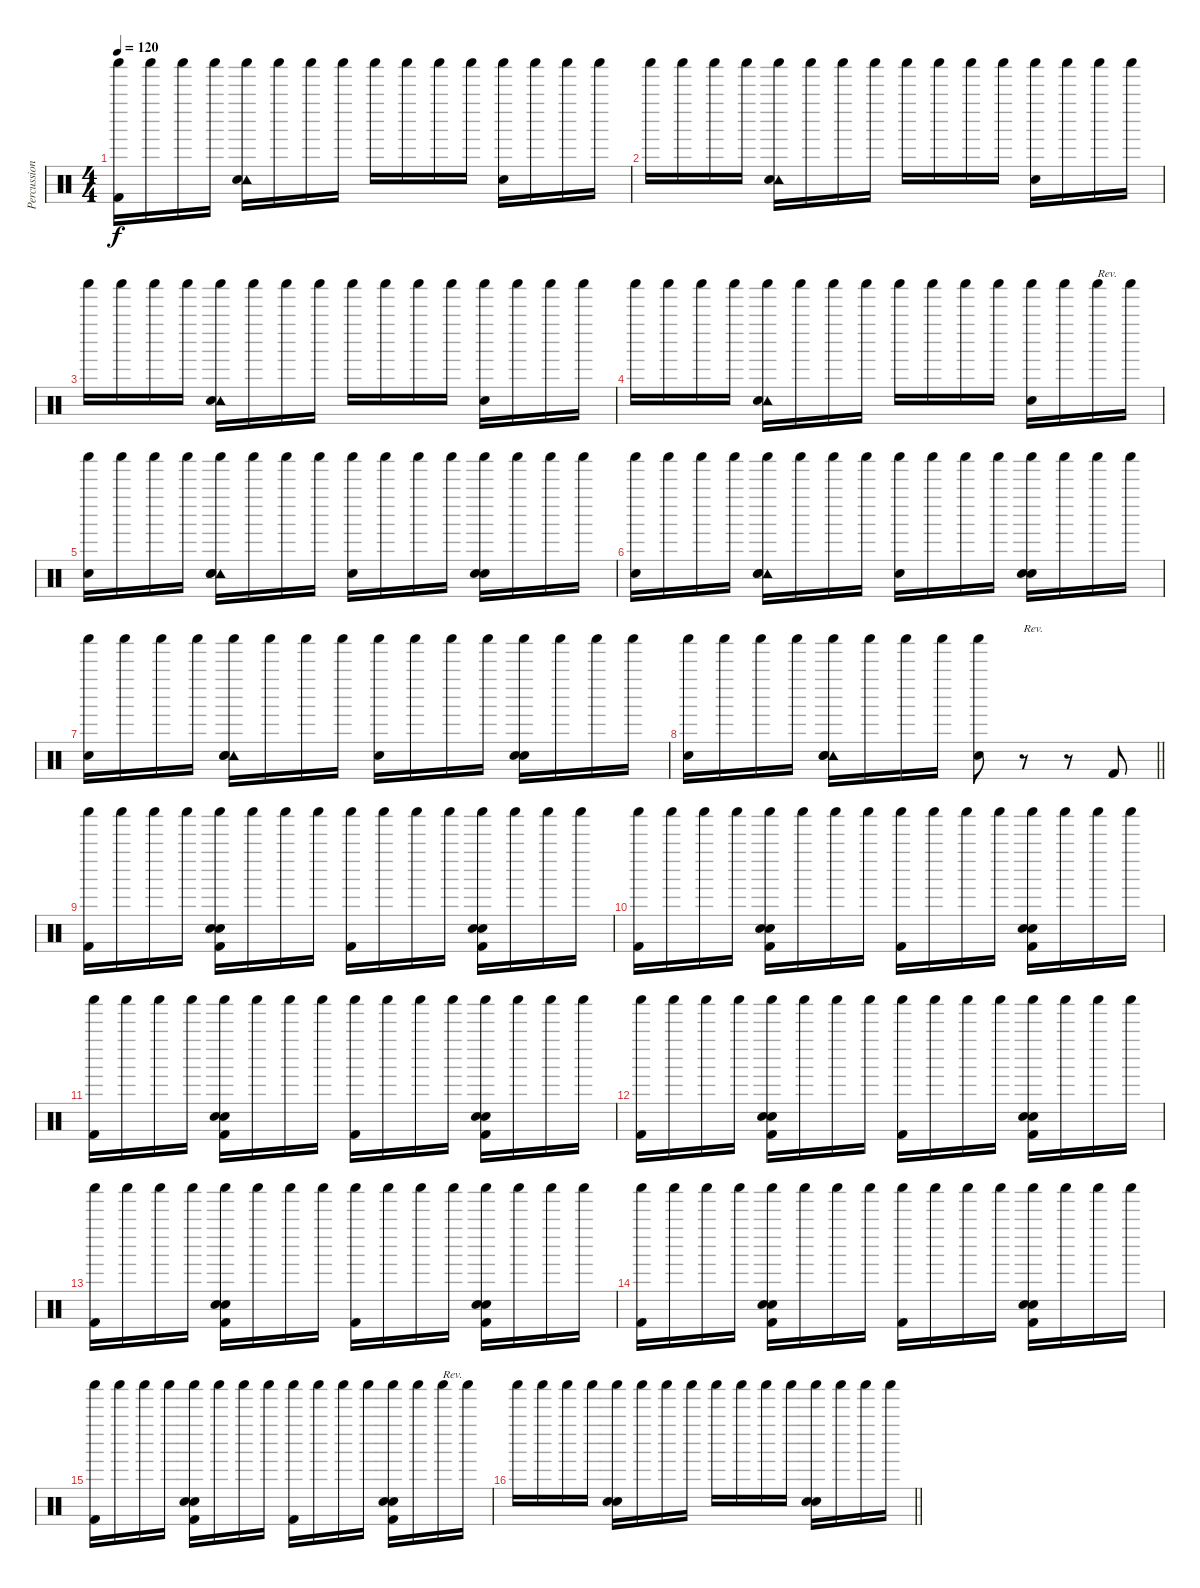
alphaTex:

\track ("Percussion" "Percussion") {instrument percussion}
\staff {score}
\articulation defaults
\ts (4 4)
\tempo 120
\clef neutral
\ks c
("Shaker (hit)" "Kick (hit) 2").16{dy f} "Shaker (hit)".16 "Shaker (hit)".16 "Shaker (hit)".16 ("Shaker (hit)" "Tambourine (hit)" "Hand Clap (hit)").16 "Shaker (hit)".16 "Shaker (hit)".16 "Shaker (hit)".16 "Shaker (hit)".16 "Shaker (hit)".16 "Shaker (hit)".16 "Shaker (hit)".16 ("Shaker (hit)" "Hand Clap (hit)").16 "Shaker (hit)".16 "Shaker (hit)".16 "Shaker (hit)".16 |
"Shaker (hit)".16 "Shaker (hit)".16 "Shaker (hit)".16 "Shaker (hit)".16 ("Shaker (hit)" "Tambourine (hit)" "Hand Clap (hit)").16 "Shaker (hit)".16 "Shaker (hit)".16 "Shaker (hit)".16 "Shaker (hit)".16 "Shaker (hit)".16 "Shaker (hit)".16 "Shaker (hit)".16 ("Shaker (hit)" "Hand Clap (hit)").16 "Shaker (hit)".16 "Shaker (hit)".16 "Shaker (hit)".16 |
"Shaker (hit)".16 "Shaker (hit)".16 "Shaker (hit)".16 "Shaker (hit)".16 ("Shaker (hit)" "Tambourine (hit)" "Hand Clap (hit)").16 "Shaker (hit)".16 "Shaker (hit)".16 "Shaker (hit)".16 "Shaker (hit)".16 "Shaker (hit)".16 "Shaker (hit)".16 "Shaker (hit)".16 ("Shaker (hit)" "Hand Clap (hit)").16 "Shaker (hit)".16 "Shaker (hit)".16 "Shaker (hit)".16 |
"Shaker (hit)".16 "Shaker (hit)".16 "Shaker (hit)".16 "Shaker (hit)".16 ("Shaker (hit)" "Tambourine (hit)" "Hand Clap (hit)").16 "Shaker (hit)".16 "Shaker (hit)".16 "Shaker (hit)".16 "Shaker (hit)".16 "Shaker (hit)".16 "Shaker (hit)".16 "Shaker (hit)".16 ("Shaker (hit)" "Hand Clap (hit)").16 "Shaker (hit)".16 "Shaker (hit)".16{txt "Rev."} "Shaker (hit)".16 |
("Shaker (hit)" "Electric Snare (hit)").16 "Shaker (hit)".16 "Shaker (hit)".16 "Shaker (hit)".16 ("Shaker (hit)" "Tambourine (hit)" "Hand Clap (hit)" "Electric Snare (hit)").16 "Shaker (hit)".16 "Shaker (hit)".16 "Shaker (hit)".16 ("Shaker (hit)" "Electric Snare (hit)").16 "Shaker (hit)".16 "Shaker (hit)".16 "Shaker (hit)".16 ("Shaker (hit)" "Hand Clap (hit)" "Electric Snare (hit)").16 "Shaker (hit)".16 "Shaker (hit)".16 "Shaker (hit)".16 |
("Shaker (hit)" "Electric Snare (hit)").16 "Shaker (hit)".16 "Shaker (hit)".16 "Shaker (hit)".16 ("Shaker (hit)" "Tambourine (hit)" "Hand Clap (hit)" "Electric Snare (hit)").16 "Shaker (hit)".16 "Shaker (hit)".16 "Shaker (hit)".16 ("Shaker (hit)" "Electric Snare (hit)").16 "Shaker (hit)".16 "Shaker (hit)".16 "Shaker (hit)".16 ("Shaker (hit)" "Hand Clap (hit)" "Electric Snare (hit)").16 "Shaker (hit)".16 "Shaker (hit)".16 "Shaker (hit)".16 |
("Shaker (hit)" "Electric Snare (hit)").16 "Shaker (hit)".16 "Shaker (hit)".16 "Shaker (hit)".16 ("Shaker (hit)" "Tambourine (hit)" "Hand Clap (hit)" "Electric Snare (hit)").16 "Shaker (hit)".16 "Shaker (hit)".16 "Shaker (hit)".16 ("Shaker (hit)" "Electric Snare (hit)").16 "Shaker (hit)".16 "Shaker (hit)".16 "Shaker (hit)".16 ("Shaker (hit)" "Hand Clap (hit)" "Electric Snare (hit)").16 "Shaker (hit)".16 "Shaker (hit)".16 "Shaker (hit)".16 |
\barLineRight lightlight
("Shaker (hit)" "Electric Snare (hit)").16 "Shaker (hit)".16 "Shaker (hit)".16 "Shaker (hit)".16 ("Shaker (hit)" "Tambourine (hit)" "Hand Clap (hit)" "Electric Snare (hit)").16 "Shaker (hit)".16 "Shaker (hit)".16 "Shaker (hit)".16 ("Shaker (hit)" "Electric Snare (hit)").8 r.8{txt "Rev."} r.8 "Kick (hit) 2".8 |
("Shaker (hit)" "Kick (hit) 2").16 "Shaker (hit)".16 "Shaker (hit)".16 "Shaker (hit)".16 ("Shaker (hit)" "Hand Clap (hit)" "Electric Snare (hit)" "Kick (hit) 2").16 "Shaker (hit)".16 "Shaker (hit)".16 "Shaker (hit)".16 ("Shaker (hit)" "Kick (hit) 2").16 "Shaker (hit)".16 "Shaker (hit)".16 "Shaker (hit)".16 ("Shaker (hit)" "Hand Clap (hit)" "Electric Snare (hit)" "Kick (hit) 2").16 "Shaker (hit)".16 "Shaker (hit)".16 "Shaker (hit)".16 |
("Shaker (hit)" "Kick (hit) 2").16 "Shaker (hit)".16 "Shaker (hit)".16 "Shaker (hit)".16 ("Shaker (hit)" "Hand Clap (hit)" "Electric Snare (hit)" "Kick (hit) 2").16 "Shaker (hit)".16 "Shaker (hit)".16 "Shaker (hit)".16 ("Shaker (hit)" "Kick (hit) 2").16 "Shaker (hit)".16 "Shaker (hit)".16 "Shaker (hit)".16 ("Shaker (hit)" "Hand Clap (hit)" "Electric Snare (hit)" "Kick (hit) 2").16 "Shaker (hit)".16 "Shaker (hit)".16 "Shaker (hit)".16 |
("Shaker (hit)" "Kick (hit) 2").16 "Shaker (hit)".16 "Shaker (hit)".16 "Shaker (hit)".16 ("Shaker (hit)" "Hand Clap (hit)" "Electric Snare (hit)" "Kick (hit) 2").16 "Shaker (hit)".16 "Shaker (hit)".16 "Shaker (hit)".16 ("Shaker (hit)" "Kick (hit) 2").16 "Shaker (hit)".16 "Shaker (hit)".16 "Shaker (hit)".16 ("Shaker (hit)" "Hand Clap (hit)" "Electric Snare (hit)" "Kick (hit) 2").16 "Shaker (hit)".16 "Shaker (hit)".16 "Shaker (hit)".16 |
("Shaker (hit)" "Kick (hit) 2").16 "Shaker (hit)".16 "Shaker (hit)".16 "Shaker (hit)".16 ("Shaker (hit)" "Hand Clap (hit)" "Electric Snare (hit)" "Kick (hit) 2").16 "Shaker (hit)".16 "Shaker (hit)".16 "Shaker (hit)".16 ("Shaker (hit)" "Kick (hit) 2").16 "Shaker (hit)".16 "Shaker (hit)".16 "Shaker (hit)".16 ("Shaker (hit)" "Hand Clap (hit)" "Electric Snare (hit)" "Kick (hit) 2").16 "Shaker (hit)".16 "Shaker (hit)".16 "Shaker (hit)".16 |
("Shaker (hit)" "Kick (hit) 2").16 "Shaker (hit)".16 "Shaker (hit)".16 "Shaker (hit)".16 ("Shaker (hit)" "Hand Clap (hit)" "Electric Snare (hit)" "Kick (hit) 2").16 "Shaker (hit)".16 "Shaker (hit)".16 "Shaker (hit)".16 ("Shaker (hit)" "Kick (hit) 2").16 "Shaker (hit)".16 "Shaker (hit)".16 "Shaker (hit)".16 ("Shaker (hit)" "Hand Clap (hit)" "Electric Snare (hit)" "Kick (hit) 2").16 "Shaker (hit)".16 "Shaker (hit)".16 "Shaker (hit)".16 |
("Shaker (hit)" "Kick (hit) 2").16 "Shaker (hit)".16 "Shaker (hit)".16 "Shaker (hit)".16 ("Shaker (hit)" "Hand Clap (hit)" "Electric Snare (hit)" "Kick (hit) 2").16 "Shaker (hit)".16 "Shaker (hit)".16 "Shaker (hit)".16 ("Shaker (hit)" "Kick (hit) 2").16 "Shaker (hit)".16 "Shaker (hit)".16 "Shaker (hit)".16 ("Shaker (hit)" "Hand Clap (hit)" "Electric Snare (hit)" "Kick (hit) 2").16 "Shaker (hit)".16 "Shaker (hit)".16 "Shaker (hit)".16 |
("Shaker (hit)" "Kick (hit) 2").16 "Shaker (hit)".16 "Shaker (hit)".16 "Shaker (hit)".16 ("Shaker (hit)" "Hand Clap (hit)" "Electric Snare (hit)" "Kick (hit) 2").16 "Shaker (hit)".16 "Shaker (hit)".16 "Shaker (hit)".16 ("Shaker (hit)" "Kick (hit) 2").16 "Shaker (hit)".16 "Shaker (hit)".16 "Shaker (hit)".16 ("Shaker (hit)" "Hand Clap (hit)" "Electric Snare (hit)" "Kick (hit) 2").16 "Shaker (hit)".16 "Shaker (hit)".16{txt "Rev."} "Shaker (hit)".16 |
\barLineRight lightlight "Shaker (hit)".16 "Shaker (hit)".16 "Shaker (hit)".16 "Shaker (hit)".16
("Shaker (hit)" "Hand Clap (hit)" "Electric Snare (hit)").16 "Shaker (hit)".16 "Shaker (hit)".16 "Shaker (hit)".16 "Shaker (hit)".16 "Shaker (hit)".16 "Shaker (hit)".16 "Shaker (hit)".16 ("Shaker (hit)" "Hand Clap (hit)" "Electric Snare (hit)").16 "Shaker (hit)".16 "Shaker (hit)".16 "Shaker (hit)".16
